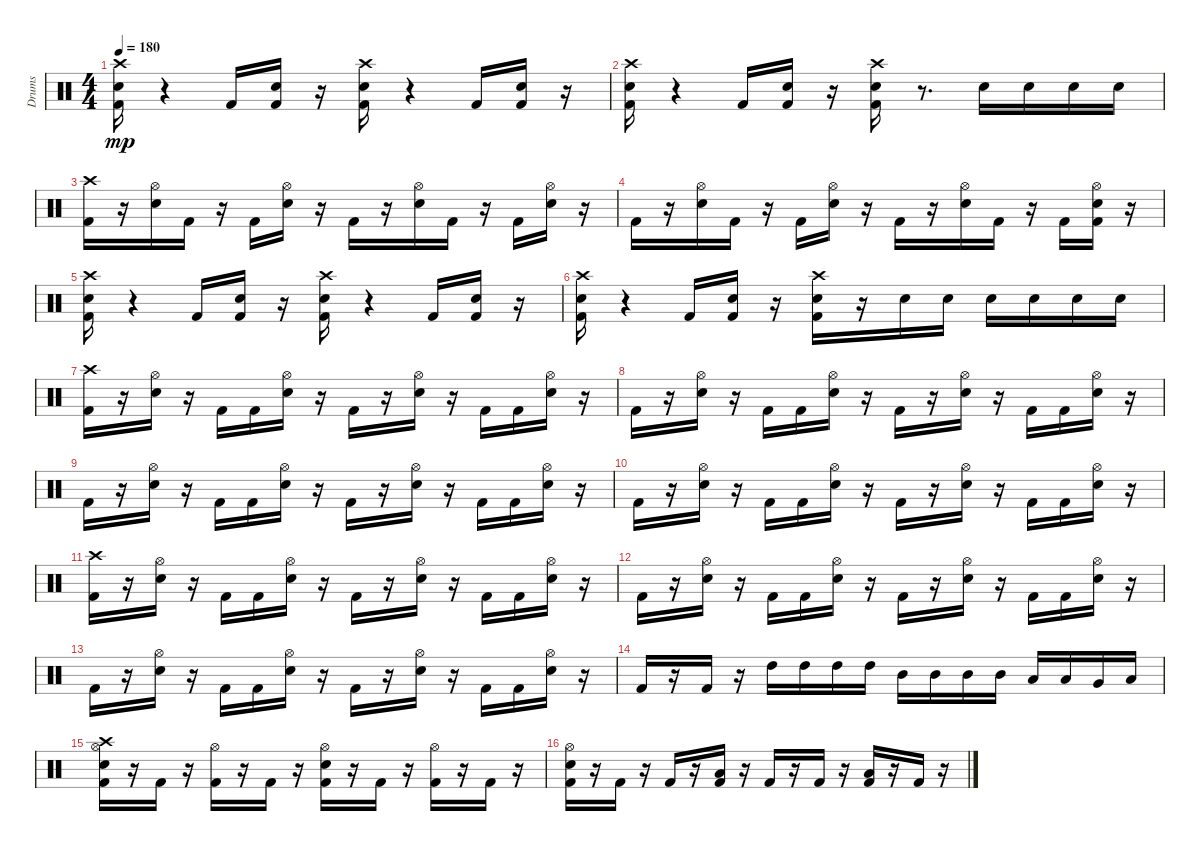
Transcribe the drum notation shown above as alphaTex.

\track ("Drums" "Drums") {instrument percussion}
\staff {score}
\articulation defaults
\ts (4 4)
\tempo 180
\clef neutral
\ks c
("Kick (hit) 2" "Electric Snare (hit)" "Crash high (hit)").16{dy mp} r.4 "Kick (hit) 2".16 ("Kick (hit) 2" "Electric Snare (hit)").16 r.16 ("Crash high (hit)" "Kick (hit) 2" "Electric Snare (hit)").16 r.4 "Kick (hit) 2".16 ("Electric Snare (hit)" "Kick (hit) 2").16 r.16 |
("Electric Snare (hit)" "Crash high (hit)" "Kick (hit) 2").16 r.4 "Kick (hit) 2".16 ("Electric Snare (hit)" "Kick (hit) 2").16 r.16 ("Kick (hit) 2" "Electric Snare (hit)" "Crash high (hit)").16 r.8{d} "Electric Snare (hit)".16 "Electric Snare (hit)".16 "Electric Snare (hit)".16 "Electric Snare (hit)".16 |
("Crash high (hit)" "Kick (hit) 2").16 r.16 ("Hi-Hat (open)" "Electric Snare (hit)").16 "Kick (hit) 2".16 r.16 "Kick (hit) 2".16 ("Electric Snare (hit)" "Hi-Hat (open)").16 r.16 "Kick (hit) 2".16 r.16 ("Hi-Hat (open)" "Electric Snare (hit)").16 "Kick (hit) 2".16 r.16 "Kick (hit) 2".16 ("Electric Snare (hit)" "Hi-Hat (open)").16 r.16 |
"Kick (hit) 2".16 r.16 ("Hi-Hat (open)" "Electric Snare (hit)").16 "Kick (hit) 2".16 r.16 "Kick (hit) 2".16 ("Hi-Hat (open)" "Electric Snare (hit)").16 r.16 "Kick (hit) 2".16 r.16 ("Hi-Hat (open)" "Electric Snare (hit)").16 "Kick (hit) 2".16 r.16 "Kick (hit) 2".16 ("Hi-Hat (open)" "Kick (hit) 2" "Electric Snare (hit)").16 r.16 |
("Crash high (hit)" "Electric Snare (hit)" "Kick (hit) 2").16 r.4 "Kick (hit) 2".16 ("Kick (hit) 2" "Electric Snare (hit)").16 r.16 ("Kick (hit) 2" "Crash high (hit)" "Electric Snare (hit)").16 r.4 "Kick (hit) 2".16 ("Kick (hit) 2" "Electric Snare (hit)").16 r.16 |
("Crash high (hit)" "Electric Snare (hit)" "Kick (hit) 2").16 r.4 "Kick (hit) 2".16 ("Electric Snare (hit)" "Kick (hit) 2").16 r.16 ("Electric Snare (hit)" "Crash high (hit)" "Kick (hit) 2").16 r.16 "Electric Snare (hit)".16 "Electric Snare (hit)".16 "Electric Snare (hit)".16 "Electric Snare (hit)".16 "Electric Snare (hit)".16 "Electric Snare (hit)".16 |
("Kick (hit) 2" "Crash high (hit)").16 r.16 ("Hi-Hat (open)" "Electric Snare (hit)").16 r.16 "Kick (hit) 2".16 "Kick (hit) 2".16 ("Hi-Hat (open)" "Electric Snare (hit)").16 r.16 "Kick (hit) 2".16 r.16 ("Electric Snare (hit)" "Hi-Hat (open)").16 r.16 "Kick (hit) 2".16 "Kick (hit) 2".16 ("Hi-Hat (open)" "Electric Snare (hit)").16 r.16 |
"Kick (hit) 2".16 r.16 ("Electric Snare (hit)" "Hi-Hat (open)").16 r.16 "Kick (hit) 2".16 "Kick (hit) 2".16 ("Hi-Hat (open)" "Electric Snare (hit)").16 r.16 "Kick (hit) 2".16 r.16 ("Electric Snare (hit)" "Hi-Hat (open)").16 r.16 "Kick (hit) 2".16 "Kick (hit) 2".16 ("Hi-Hat (open)" "Electric Snare (hit)").16 r.16 |
"Kick (hit) 2".16 r.16 ("Electric Snare (hit)" "Hi-Hat (open)").16 r.16 "Kick (hit) 2".16 "Kick (hit) 2".16 ("Hi-Hat (open)" "Electric Snare (hit)").16 r.16 "Kick (hit) 2".16 r.16 ("Electric Snare (hit)" "Hi-Hat (open)").16 r.16 "Kick (hit) 2".16 "Kick (hit) 2".16 ("Electric Snare (hit)" "Hi-Hat (open)").16 r.16 |
"Kick (hit) 2".16 r.16 ("Hi-Hat (open)" "Electric Snare (hit)").16 r.16 "Kick (hit) 2".16 "Kick (hit) 2".16 ("Electric Snare (hit)" "Hi-Hat (open)").16 r.16 "Kick (hit) 2".16 r.16 ("Electric Snare (hit)" "Hi-Hat (open)").16 r.16 "Kick (hit) 2".16 "Kick (hit) 2".16 ("Hi-Hat (open)" "Electric Snare (hit)").16 r.16 |
("Crash high (hit)" "Kick (hit) 2").16 r.16 ("Electric Snare (hit)" "Hi-Hat (open)").16 r.16 "Kick (hit) 2".16 "Kick (hit) 2".16 ("Electric Snare (hit)" "Hi-Hat (open)").16 r.16 "Kick (hit) 2".16 r.16 ("Hi-Hat (open)" "Electric Snare (hit)").16 r.16 "Kick (hit) 2".16 "Kick (hit) 2".16 ("Electric Snare (hit)" "Hi-Hat (open)").16 r.16 |
"Kick (hit) 2".16 r.16 ("Electric Snare (hit)" "Hi-Hat (open)").16 r.16 "Kick (hit) 2".16 "Kick (hit) 2".16 ("Electric Snare (hit)" "Hi-Hat (open)").16 r.16 "Kick (hit) 2".16 r.16 ("Hi-Hat (open)" "Electric Snare (hit)").16 r.16 "Kick (hit) 2".16 "Kick (hit) 2".16 ("Electric Snare (hit)" "Hi-Hat (open)").16 r.16 |
"Kick (hit) 2".16 r.16 ("Hi-Hat (open)" "Electric Snare (hit)").16 r.16 "Kick (hit) 2".16 "Kick (hit) 2".16 ("Electric Snare (hit)" "Hi-Hat (open)").16 r.16 "Kick (hit) 2".16 r.16 ("Electric Snare (hit)" "Hi-Hat (open)").16 r.16 "Kick (hit) 2".16 "Kick (hit) 2".16 ("Electric Snare (hit)" "Hi-Hat (open)").16 r.16 |
"Kick (hit) 2".16 r.16 "Kick (hit) 2".16 r.16 "High Tom (hit)".16 "High Tom (hit)".16 "High Tom (hit)".16 "High Tom (hit)".16 "Mid Tom (hit)".16 "Mid Tom (hit)".16 "Mid Tom (hit)".16 "Mid Tom (hit)".16 "Low Tom (hit)".16 "Low Tom (hit)".16 "Very Low Tom (hit)".16 "Low Floor Tom (hit)".16 |
("Electric Snare (hit)" "Kick (hit) 2" "Crash high (hit)" "Hi-Hat (open)").16 r.16 "Kick (hit) 2".16 r.16 ("Hi-Hat (open)" "Kick (hit) 2").16 r.16 "Kick (hit) 2".16 r.16 ("Electric Snare (hit)" "Hi-Hat (open)" "Kick (hit) 2").16 r.16 "Kick (hit) 2".16 r.16 ("Hi-Hat (open)" "Kick (hit) 2").16 r.16 "Kick (hit) 2".16 r.16 |
("Electric Snare (hit)" "Hi-Hat (open)" "Kick (hit) 2").16 r.16 "Kick (hit) 2".16 r.16 "Kick (hit) 2".16 r.16 ("Low Floor Tom (hit)" "Kick (hit) 2").16 r.16 "Kick (hit) 2".16 r.16 "Kick (hit) 2".16 r.16 ("Low Floor Tom (hit)" "Kick (hit) 2").16 r.16 "Kick (hit) 2".16 r.16
